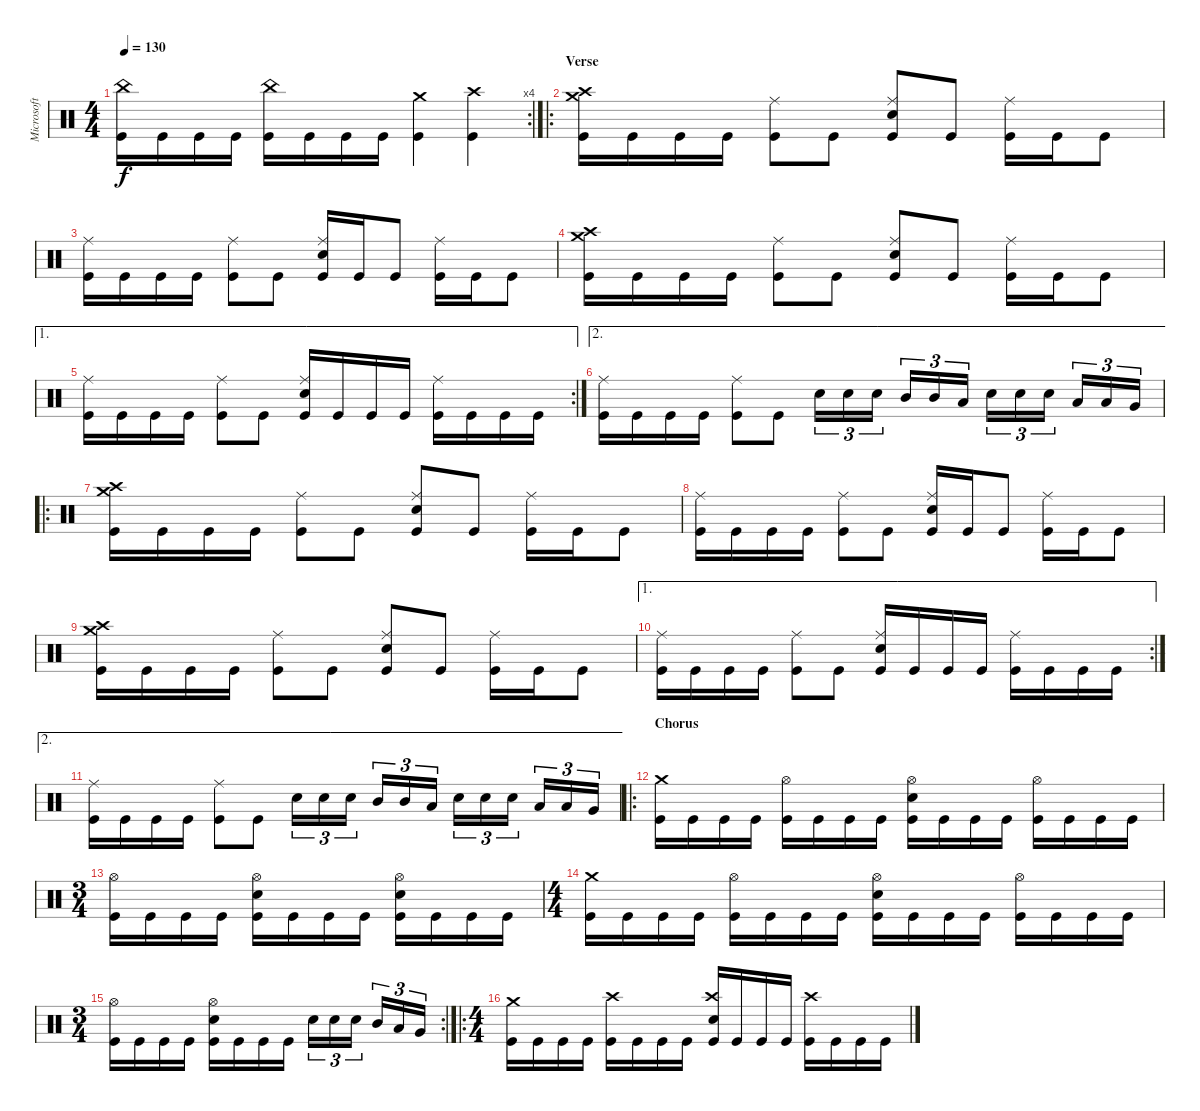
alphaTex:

\track ("Microsoft S.A.M." "Microsoft ") {instrument percussion}
\staff {score}
\articulation defaults
\rc 4
\ts (4 4)
\tempo 130
\clef neutral
\ks c
("Kick (hit)" "China (hit)").16{dy f} "Kick (hit)".16 "Kick (hit)".16 "Kick (hit)".16 ("Kick (hit)" "China (hit)").16 "Kick (hit)".16 "Kick (hit)".16 "Kick (hit)".16 ("Kick (hit)" "Crash medium (hit)").4 ("Kick (hit)" "Crash high (hit)").4 |
\ro
\section ("" "Verse")
("Kick (hit)" "Crash medium (hit)" "Crash high (hit)").16 "Kick (hit)".16 "Kick (hit)".16 "Kick (hit)".16 ("Kick (hit)" "Ride (middle)").8 "Kick (hit)".8 ("Kick (hit)" "Ride (middle)" "Snare (hit) 2").8 "Kick (hit)".8 ("Kick (hit)" "Ride (middle)").16 "Kick (hit)".16 "Kick (hit)".8 |
("Kick (hit)" "Ride (middle)").16 "Kick (hit)".16 "Kick (hit)".16 "Kick (hit)".16 ("Kick (hit)" "Ride (middle)").8 "Kick (hit)".8 ("Kick (hit)" "Ride (middle)" "Snare (hit) 2").16 "Kick (hit)".16 "Kick (hit)".8 ("Kick (hit)" "Ride (middle)").16 "Kick (hit)".16 "Kick (hit)".8 |
("Kick (hit)" "Crash medium (hit)" "Crash high (hit)").16 "Kick (hit)".16 "Kick (hit)".16 "Kick (hit)".16 ("Kick (hit)" "Ride (middle)").8 "Kick (hit)".8 ("Kick (hit)" "Ride (middle)" "Snare (hit) 2").8 "Kick (hit)".8 ("Kick (hit)" "Ride (middle)").16 "Kick (hit)".16 "Kick (hit)".8 |
\ae 1
\rc 2
("Kick (hit)" "Ride (middle)").16 "Kick (hit)".16 "Kick (hit)".16 "Kick (hit)".16 ("Kick (hit)" "Ride (middle)").8 "Kick (hit)".8 ("Kick (hit)" "Ride (middle)" "Snare (hit) 2").16 "Kick (hit)".16 "Kick (hit)".16 "Kick (hit)".16 ("Kick (hit)" "Ride (middle)").16 "Kick (hit)".16 "Kick (hit)".16 "Kick (hit)".16 |
\ae 2
("Kick (hit)" "Ride (middle)").16 "Kick (hit)".16 "Kick (hit)".16 "Kick (hit)".16 ("Kick (hit)" "Ride (middle)").8 "Kick (hit)".8 "Snare (hit) 2".16{tu (3 2)} "Snare (hit) 2".16{tu (3 2)} "Snare (hit) 2".16{tu (3 2)} "Mid Tom (hit)".16{tu (3 2)} "Mid Tom (hit)".16{tu (3 2)} "Low Tom (hit)".16{tu (3 2)} "Snare (hit) 2".16{tu (3 2)} "Snare (hit) 2".16{tu (3 2)} "Snare (hit) 2".16{tu (3 2)} "Low Tom (hit)".16{tu (3 2)} "Low Tom (hit)".16{tu (3 2)} "Very Low Tom (hit)".16{tu (3 2)} |
\ro
("Kick (hit)" "Crash medium (hit)" "Crash high (hit)").16 "Kick (hit)".16 "Kick (hit)".16 "Kick (hit)".16 ("Kick (hit)" "Ride (middle)").8 "Kick (hit)".8 ("Kick (hit)" "Ride (middle)" "Snare (hit) 2").8 "Kick (hit)".8 ("Kick (hit)" "Ride (middle)").16 "Kick (hit)".16 "Kick (hit)".8 |
("Kick (hit)" "Ride (middle)").16 "Kick (hit)".16 "Kick (hit)".16 "Kick (hit)".16 ("Kick (hit)" "Ride (middle)").8 "Kick (hit)".8 ("Kick (hit)" "Ride (middle)" "Snare (hit) 2").16 "Kick (hit)".16 "Kick (hit)".8 ("Kick (hit)" "Ride (middle)").16 "Kick (hit)".16 "Kick (hit)".8 |
("Kick (hit)" "Crash medium (hit)" "Crash high (hit)").16 "Kick (hit)".16 "Kick (hit)".16 "Kick (hit)".16 ("Kick (hit)" "Ride (middle)").8 "Kick (hit)".8 ("Kick (hit)" "Ride (middle)" "Snare (hit) 2").8 "Kick (hit)".8 ("Kick (hit)" "Ride (middle)").16 "Kick (hit)".16 "Kick (hit)".8 |
\ae 1
\rc 2
("Kick (hit)" "Ride (middle)").16 "Kick (hit)".16 "Kick (hit)".16 "Kick (hit)".16 ("Kick (hit)" "Ride (middle)").8 "Kick (hit)".8 ("Kick (hit)" "Ride (middle)" "Snare (hit) 2").16 "Kick (hit)".16 "Kick (hit)".16 "Kick (hit)".16 ("Kick (hit)" "Ride (middle)").16 "Kick (hit)".16 "Kick (hit)".16 "Kick (hit)".16 |
\ae 2
("Kick (hit)" "Ride (middle)").16 "Kick (hit)".16 "Kick (hit)".16 "Kick (hit)".16 ("Kick (hit)" "Ride (middle)").8 "Kick (hit)".8 "Snare (hit) 2".16{tu (3 2)} "Snare (hit) 2".16{tu (3 2)} "Snare (hit) 2".16{tu (3 2)} "Mid Tom (hit)".16{tu (3 2)} "Mid Tom (hit)".16{tu (3 2)} "Low Tom (hit)".16{tu (3 2)} "Snare (hit) 2".16{tu (3 2)} "Snare (hit) 2".16{tu (3 2)} "Snare (hit) 2".16{tu (3 2)} "Low Tom (hit)".16{tu (3 2)} "Low Tom (hit)".16{tu (3 2)} "Very Low Tom (hit)".16{tu (3 2)} |
\ro
\section ("" "Chorus")
("Kick (hit)" "Crash medium (hit)").16 "Kick (hit)".16 "Kick (hit)".16 "Kick (hit)".16 ("Kick (hit)" "Hi-Hat (open)").16 "Kick (hit)".16 "Kick (hit)".16 "Kick (hit)".16 ("Kick (hit)" "Hi-Hat (open)" "Snare (hit) 2").16 "Kick (hit)".16 "Kick (hit)".16 "Kick (hit)".16 ("Kick (hit)" "Hi-Hat (open)").16 "Kick (hit)".16 "Kick (hit)".16 "Kick (hit)".16 |
\ts (3 4)
("Kick (hit)" "Hi-Hat (open)").16 "Kick (hit)".16 "Kick (hit)".16 "Kick (hit)".16 ("Kick (hit)" "Hi-Hat (open)" "Snare (hit) 2").16 "Kick (hit)".16 "Kick (hit)".16 "Kick (hit)".16 ("Kick (hit)" "Hi-Hat (open)" "Snare (hit) 2").16 "Kick (hit)".16 "Kick (hit)".16 "Kick (hit)".16 |
\ts (4 4)
("Kick (hit)" "Crash medium (hit)").16 "Kick (hit)".16 "Kick (hit)".16 "Kick (hit)".16 ("Kick (hit)" "Hi-Hat (open)").16 "Kick (hit)".16 "Kick (hit)".16 "Kick (hit)".16 ("Kick (hit)" "Hi-Hat (open)" "Snare (hit) 2").16 "Kick (hit)".16 "Kick (hit)".16 "Kick (hit)".16 ("Kick (hit)" "Hi-Hat (open)").16 "Kick (hit)".16 "Kick (hit)".16 "Kick (hit)".16 |
\rc 2
\ts (3 4)
("Kick (hit)" "Hi-Hat (open)").16 "Kick (hit)".16 "Kick (hit)".16 "Kick (hit)".16 ("Kick (hit)" "Hi-Hat (open)" "Snare (hit) 2").16 "Kick (hit)".16 "Kick (hit)".16 "Kick (hit)".16 "Snare (hit) 2".16{tu (3 2)} "Snare (hit) 2".16{tu (3 2)} "Snare (hit) 2".16{tu (3 2)} "Mid Tom (hit)".16{tu (3 2)} "Low Tom (hit)".16{tu (3 2)} "Very Low Tom (hit)".16{tu (3 2)} |
\ro
\ts (4 4)
("Kick (hit)" "Crash medium (hit)").16 "Kick (hit)".16 "Kick (hit)".16 "Kick (hit)".16 ("Kick (hit)" "Crash high (hit)").16 "Kick (hit)".16 "Kick (hit)".16 "Kick (hit)".16 ("Kick (hit)" "Snare (hit) 2" "Crash high (hit)").16 "Kick (hit)".16 "Kick (hit)".16 "Kick (hit)".16 ("Kick (hit)" "Crash high (hit)").16 "Kick (hit)".16 "Kick (hit)".16 "Kick (hit)".16
